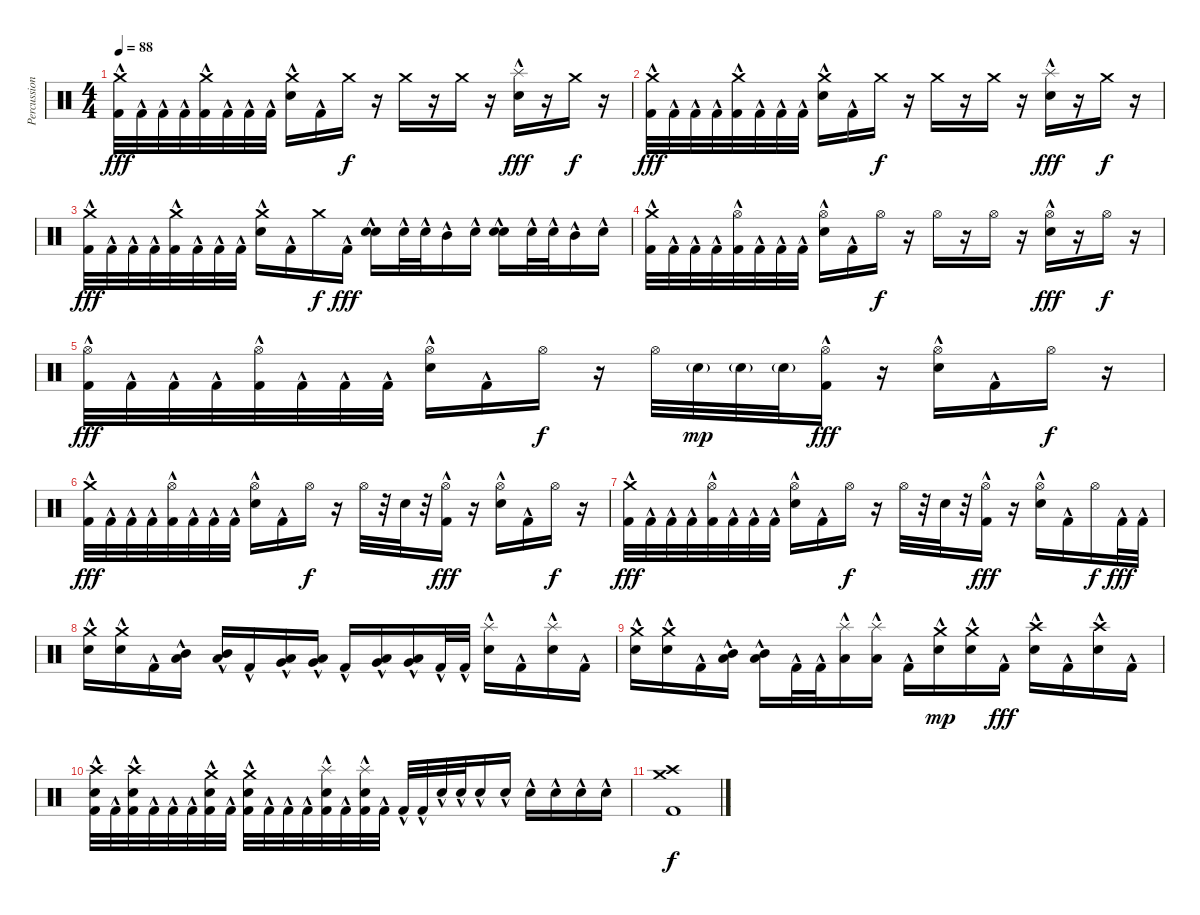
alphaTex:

\track ("Percussion" "Percussion") {instrument percussion}
\staff {score}
\articulation defaults
\ts (4 4)
\tempo 88
\clef neutral
\ks c
("Kick (hit) 2"{hac} "Crash medium (hit)").32{dy fff} "Kick (hit) 2"{hac}.32 "Kick (hit) 2"{hac}.32 "Kick (hit) 2"{hac}.32 ("Kick (hit) 2"{hac} "Crash medium (hit)").32 "Kick (hit) 2"{hac}.32 "Kick (hit) 2"{hac}.32 "Kick (hit) 2"{hac}.32 ("Electric Snare (hit)"{hac} "Crash medium (hit)").16 "Kick (hit) 2"{hac}.16 "Crash medium (hit)".16{dy f} r.16 "Crash medium (hit)".16 r.16 "Crash medium (hit)".16 r.16 ("Electric Snare (hit)"{hac} "Splash (hit)").16{dy fff} r.16 "Crash medium (hit)".16{dy f} r.16 |
("Kick (hit) 2"{hac} "Crash medium (hit)").32{dy fff} "Kick (hit) 2"{hac}.32 "Kick (hit) 2"{hac}.32 "Kick (hit) 2"{hac}.32 ("Kick (hit) 2"{hac} "Crash medium (hit)").32 "Kick (hit) 2"{hac}.32 "Kick (hit) 2"{hac}.32 "Kick (hit) 2"{hac}.32 ("Electric Snare (hit)"{hac} "Crash medium (hit)").16 "Kick (hit) 2"{hac}.16 "Crash medium (hit)".16{dy f} r.16 "Crash medium (hit)".16 r.16 "Crash medium (hit)".16 r.16 ("Electric Snare (hit)"{hac} "Splash (hit)").16{dy fff} r.16 "Crash medium (hit)".16{dy f} r.16 |
("Kick (hit) 2"{hac} "Crash medium (hit)").32{dy fff} "Kick (hit) 2"{hac}.32 "Kick (hit) 2"{hac}.32 "Kick (hit) 2"{hac}.32 ("Kick (hit) 2"{hac} "Crash medium (hit)").32 "Kick (hit) 2"{hac}.32 "Kick (hit) 2"{hac}.32 "Kick (hit) 2"{hac}.32 ("Electric Snare (hit)"{hac} "Crash medium (hit)").16 "Kick (hit) 2"{hac}.16 "Crash medium (hit)".16{dy f} "Kick (hit) 2"{hac}.16{dy fff} ("Electric Snare (hit)"{hac} "Electric Snare (hit)"{hac}).16{bd 240} "Electric Snare (hit)"{hac}.32 "Electric Snare (hit)"{hac}.32 "Mid Tom (hit)"{hac}.16 "Electric Snare (hit)"{hac}.16 ("Electric Snare (hit)"{hac} "Electric Snare (hit)"{hac}).16{bd 240} "Electric Snare (hit)"{hac}.32 "Electric Snare (hit)"{hac}.32 "Mid Tom (hit)"{hac}.16 "Electric Snare (hit)"{hac}.16 |
("Kick (hit) 2"{hac} "Crash medium (hit)").32 "Kick (hit) 2"{hac}.32 "Kick (hit) 2"{hac}.32 "Kick (hit) 2"{hac}.32 ("Kick (hit) 2"{hac} "Hi-Hat (open)").32 "Kick (hit) 2"{hac}.32 "Kick (hit) 2"{hac}.32 "Kick (hit) 2"{hac}.32 ("Electric Snare (hit)"{hac} "Hi-Hat (open)").16 "Kick (hit) 2"{hac}.16 "Hi-Hat (open)".16{dy f} r.16 "Hi-Hat (open)".16 r.16 "Hi-Hat (open)".16 r.16 ("Electric Snare (hit)"{hac} "Hi-Hat (open)").16{dy fff} r.16 "Hi-Hat (open)".16{dy f} r.16 |
("Kick (hit) 2"{hac} "Hi-Hat (open)").32{dy fff} "Kick (hit) 2"{hac}.32 "Kick (hit) 2"{hac}.32 "Kick (hit) 2"{hac}.32 ("Kick (hit) 2"{hac} "Hi-Hat (open)").32 "Kick (hit) 2"{hac}.32 "Kick (hit) 2"{hac}.32 "Kick (hit) 2"{hac}.32 ("Electric Snare (hit)"{hac} "Hi-Hat (open)").16 "Kick (hit) 2"{hac}.16 "Hi-Hat (open)".16{dy f} r.16 "Hi-Hat (open)".32 "Electric Snare (hit)"{g}.32{dy mp} "Electric Snare (hit)"{g}.32 "Electric Snare (hit)"{g}.32 ("Kick (hit) 2"{hac} "Hi-Hat (open)").16{dy fff} r.16 ("Electric Snare (hit)"{hac} "Hi-Hat (open)").16 "Kick (hit) 2"{hac}.16 "Hi-Hat (open)".16{dy f} r.16 |
("Kick (hit) 2"{hac} "Crash medium (hit)").32{dy fff} "Kick (hit) 2"{hac}.32 "Kick (hit) 2"{hac}.32 "Kick (hit) 2"{hac}.32 ("Kick (hit) 2"{hac} "Hi-Hat (open)").32 "Kick (hit) 2"{hac}.32 "Kick (hit) 2"{hac}.32 "Kick (hit) 2"{hac}.32 ("Electric Snare (hit)"{hac} "Hi-Hat (open)").16 "Kick (hit) 2"{hac}.16 "Hi-Hat (open)".16{dy f} r.16 "Hi-Hat (open)".32 r.32 "Electric Snare (hit)".32 r.32 ("Kick (hit) 2"{hac} "Hi-Hat (open)").16{dy fff} r.16 ("Electric Snare (hit)"{hac} "Hi-Hat (open)").16 "Kick (hit) 2"{hac}.16 "Hi-Hat (open)".16{dy f} r.16 |
("Kick (hit) 2"{hac} "Crash medium (hit)").32{dy fff} "Kick (hit) 2"{hac}.32 "Kick (hit) 2"{hac}.32 "Kick (hit) 2"{hac}.32 ("Kick (hit) 2"{hac} "Hi-Hat (open)").32 "Kick (hit) 2"{hac}.32 "Kick (hit) 2"{hac}.32 "Kick (hit) 2"{hac}.32 ("Electric Snare (hit)"{hac} "Hi-Hat (open)").16 "Kick (hit) 2"{hac}.16 "Hi-Hat (open)".16{dy f} r.16 "Hi-Hat (open)".32 r.32 "Electric Snare (hit)".32 r.32 ("Kick (hit) 2"{hac} "Hi-Hat (open)").16{dy fff} r.16 ("Electric Snare (hit)"{hac} "Hi-Hat (open)").16 "Kick (hit) 2"{hac}.16 "Hi-Hat (open)".16{dy f} "Kick (hit) 2"{hac}.32{dy fff} "Kick (hit) 2"{hac}.32 |
("Electric Snare (hit)"{hac} "Crash medium (hit)").16 ("Electric Snare (hit)"{hac} "Crash medium (hit)").16 "Kick (hit) 2"{hac}.16 ("Mid Tom (hit)"{hac} "Low Tom (hit)"{hac}).16 ("Mid Tom (hit)"{hac} "Low Tom (hit)"{hac}).16 "Kick (hit) 2"{hac}.16 ("Low Tom (hit)"{hac} "Very Low Tom (hit)"{hac}).16 ("Low Tom (hit)"{hac} "Very Low Tom (hit)"{hac}).16 "Kick (hit) 2"{hac}.16 ("Very Low Tom (hit)"{hac} "Low Floor Tom (hit)"{hac}).16 ("Very Low Tom (hit)"{hac} "Low Floor Tom (hit)"{hac}).16 "Kick (hit) 2"{hac}.32 "Kick (hit) 2"{hac}.32 ("Electric Snare (hit)"{hac} "Splash (hit)").16 "Kick (hit) 2"{hac}.16 ("Electric Snare (hit)"{hac} "Splash (hit)").16 "Kick (hit) 2"{hac}.16 |
("Electric Snare (hit)"{hac} "Crash medium (hit)").16 ("Electric Snare (hit)"{hac} "Crash medium (hit)").16 "Kick (hit) 2"{hac}.16 ("Mid Tom (hit)"{hac} "Low Tom (hit)"{hac}).16 ("Mid Tom (hit)"{hac} "Low Tom (hit)"{hac}).16 "Kick (hit) 2"{hac}.32 "Kick (hit) 2"{hac}.32 ("Low Tom (hit)"{hac} "Splash (hit)").16 ("Low Tom (hit)"{hac} "Splash (hit)").16 "Kick (hit) 2"{hac}.16 ("Electric Snare (hit)"{hac} "Crash medium (hit)").16{dy mp} ("Electric Snare (hit)"{hac} "Crash medium (hit)").16 "Kick (hit) 2"{hac}.16{dy fff} ("Electric Snare (hit)"{hac} "Crash high (hit)").16 "Kick (hit) 2"{hac}.16 ("Electric Snare (hit)"{hac} "Crash high (hit)").16 "Kick (hit) 2"{hac}.16 |
("Kick (hit) 2"{hac} "Electric Snare (hit)"{hac} "Crash high (hit)").32 "Kick (hit) 2"{hac}.32 ("Kick (hit) 2"{hac} "Electric Snare (hit)"{hac} "Crash high (hit)").32 "Kick (hit) 2"{hac}.32 "Kick (hit) 2"{hac}.32 "Kick (hit) 2"{hac}.32 ("Kick (hit) 2"{hac} "Electric Snare (hit)"{hac} "Crash medium (hit)").32 "Kick (hit) 2"{hac}.32 ("Kick (hit) 2"{hac} "Electric Snare (hit)"{hac} "Crash medium (hit)").32 "Kick (hit) 2"{hac}.32 "Kick (hit) 2"{hac}.32 "Kick (hit) 2"{hac}.32 ("Kick (hit) 2"{hac} "Electric Snare (hit)"{hac} "Splash (hit)").32 "Kick (hit) 2"{hac}.32 ("Kick (hit) 2"{hac} "Electric Snare (hit)"{hac} "Splash (hit)").32 "Kick (hit) 2"{hac}.32 "Kick (hit) 2"{hac}.32 "Kick (hit) 2"{hac}.32 "Electric Snare (hit)"{hac}.32 "Electric Snare (hit)"{hac}.32 "Electric Snare (hit)"{hac}.16 "Electric Snare (hit)"{hac}.16 "Electric Snare (hit)"{hac}.16 "Electric Snare (hit)"{hac}.16 "Electric Snare (hit)"{hac}.16 "Electric Snare (hit)"{hac}.16 |
("Kick (hit) 2" "Crash medium (hit)" "Crash high (hit)").1{dy f}
